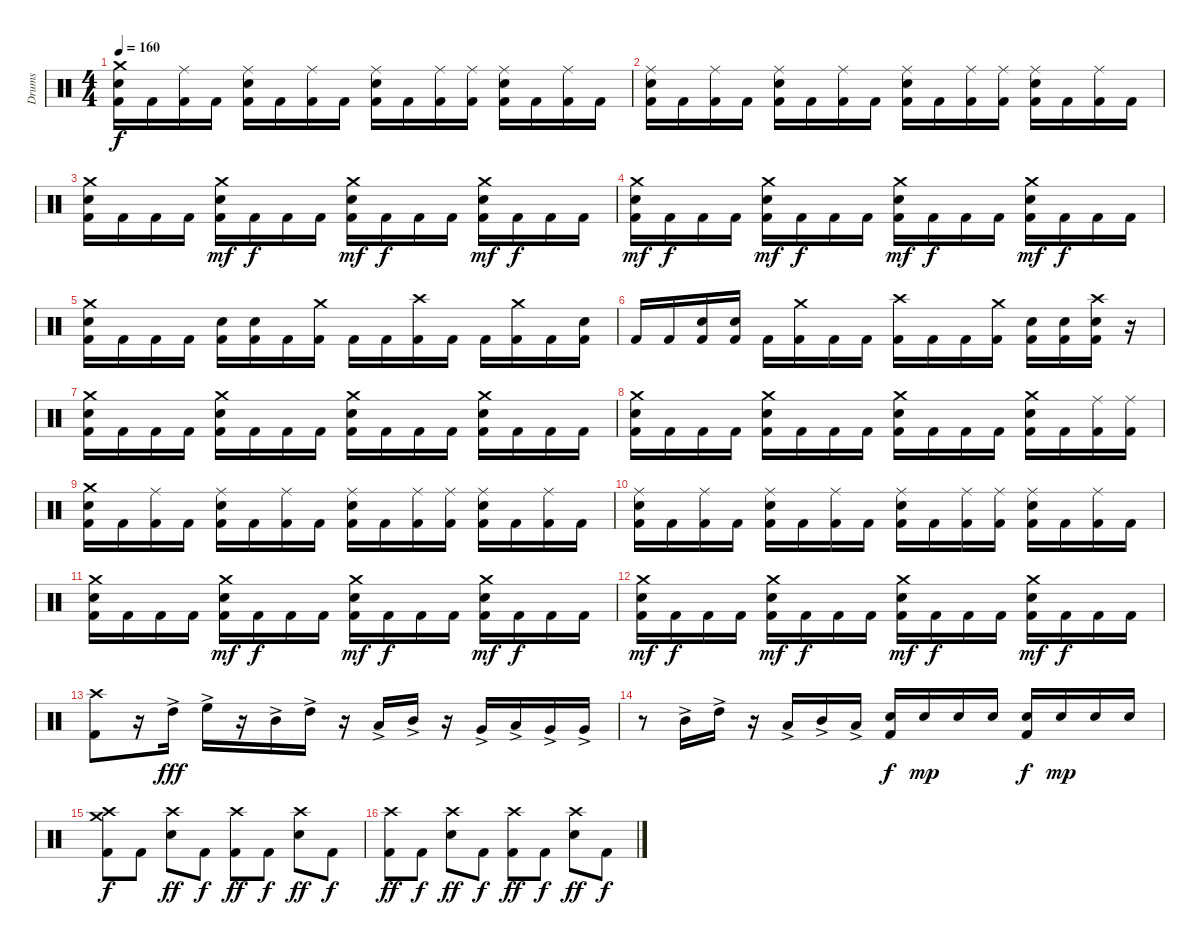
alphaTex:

\track ("Drums" "Drums") {instrument percussion}
\staff {score}
\articulation defaults
\ts (4 4)
\tempo 160
\clef neutral
\ks c
("Crash medium (hit)" "Snare (hit) 2" "Kick (hit) 2").16{dy f} "Kick (hit) 2".16 ("Ride (middle)" "Kick (hit) 2").16 "Kick (hit) 2".16 ("Ride (middle)" "Snare (hit) 2" "Kick (hit) 2").16 "Kick (hit) 2".16 ("Ride (middle)" "Kick (hit) 2").16 "Kick (hit) 2".16 ("Ride (middle)" "Snare (hit) 2" "Kick (hit) 2").16 "Kick (hit) 2".16 ("Ride (middle)" "Kick (hit) 2").16 ("Ride (middle)" "Kick (hit) 2").16 ("Ride (middle)" "Snare (hit) 2" "Kick (hit) 2").16 "Kick (hit) 2".16 ("Ride (middle)" "Kick (hit) 2").16 "Kick (hit) 2".16 |
("Ride (middle)" "Snare (hit) 2" "Kick (hit) 2").16 "Kick (hit) 2".16 ("Ride (middle)" "Kick (hit) 2").16 "Kick (hit) 2".16 ("Ride (middle)" "Snare (hit) 2" "Kick (hit) 2").16 "Kick (hit) 2".16 ("Ride (middle)" "Kick (hit) 2").16 "Kick (hit) 2".16 ("Ride (middle)" "Snare (hit) 2" "Kick (hit) 2").16 "Kick (hit) 2".16 ("Ride (middle)" "Kick (hit) 2").16 ("Ride (middle)" "Kick (hit) 2").16 ("Ride (middle)" "Snare (hit) 2" "Kick (hit) 2").16 "Kick (hit) 2".16 ("Ride (middle)" "Kick (hit) 2").16 "Kick (hit) 2".16 |
("Crash medium (hit)" "Snare (hit) 2" "Kick (hit) 2").16 "Kick (hit) 2".16 "Kick (hit) 2".16 "Kick (hit) 2".16 ("Crash medium (hit)" "Snare (hit) 2" "Kick (hit) 2").16{dy mf} "Kick (hit) 2".16{dy f} "Kick (hit) 2".16 "Kick (hit) 2".16 ("Crash medium (hit)" "Snare (hit) 2" "Kick (hit) 2").16{dy mf} "Kick (hit) 2".16{dy f} "Kick (hit) 2".16 "Kick (hit) 2".16 ("Crash medium (hit)" "Snare (hit) 2" "Kick (hit) 2").16{dy mf} "Kick (hit) 2".16{dy f} "Kick (hit) 2".16 "Kick (hit) 2".16 |
("Crash medium (hit)" "Snare (hit) 2" "Kick (hit) 2").16{dy mf} "Kick (hit) 2".16{dy f} "Kick (hit) 2".16 "Kick (hit) 2".16 ("Crash medium (hit)" "Snare (hit) 2" "Kick (hit) 2").16{dy mf} "Kick (hit) 2".16{dy f} "Kick (hit) 2".16 "Kick (hit) 2".16 ("Crash medium (hit)" "Snare (hit) 2" "Kick (hit) 2").16{dy mf} "Kick (hit) 2".16{dy f} "Kick (hit) 2".16 "Kick (hit) 2".16 ("Crash medium (hit)" "Snare (hit) 2" "Kick (hit) 2").16{dy mf} "Kick (hit) 2".16{dy f} "Kick (hit) 2".16 "Kick (hit) 2".16 |
("Crash medium (hit)" "Snare (hit) 2" "Kick (hit) 2").16 "Kick (hit) 2".16 "Kick (hit) 2".16 "Kick (hit) 2".16 ("Snare (hit) 2" "Kick (hit) 2").16 ("Snare (hit) 2" "Kick (hit) 2").16 "Kick (hit) 2".16 ("Crash medium (hit)" "Kick (hit) 2").16 "Kick (hit) 2".16 "Kick (hit) 2".16 ("Crash high (hit)" "Kick (hit) 2").16 "Kick (hit) 2".16 "Kick (hit) 2".16 ("Crash medium (hit)" "Kick (hit) 2").16 "Kick (hit) 2".16 ("Snare (hit) 2" "Kick (hit) 2").16 |
"Kick (hit) 2".16 "Kick (hit) 2".16 ("Snare (hit) 2" "Kick (hit) 2").16 ("Snare (hit) 2" "Kick (hit) 2").16 "Kick (hit) 2".16 ("Crash medium (hit)" "Kick (hit) 2").16 "Kick (hit) 2".16 "Kick (hit) 2".16 ("Crash high (hit)" "Kick (hit) 2").16 "Kick (hit) 2".16 "Kick (hit) 2".16 ("Crash medium (hit)" "Kick (hit) 2").16 ("Snare (hit) 2" "Kick (hit) 2").16 ("Snare (hit) 2" "Kick (hit) 2").16 ("Crash high (hit)" "Snare (hit) 2" "Kick (hit) 2").16 r.16 |
("Crash medium (hit)" "Snare (hit) 2" "Kick (hit) 2").16 "Kick (hit) 2".16 "Kick (hit) 2".16 "Kick (hit) 2".16 ("Crash medium (hit)" "Snare (hit) 2" "Kick (hit) 2").16 "Kick (hit) 2".16 "Kick (hit) 2".16 "Kick (hit) 2".16 ("Crash medium (hit)" "Snare (hit) 2" "Kick (hit) 2").16 "Kick (hit) 2".16 "Kick (hit) 2".16 "Kick (hit) 2".16 ("Crash medium (hit)" "Snare (hit) 2" "Kick (hit) 2").16 "Kick (hit) 2".16 "Kick (hit) 2".16 "Kick (hit) 2".16 |
("Crash medium (hit)" "Snare (hit) 2" "Kick (hit) 2").16 "Kick (hit) 2".16 "Kick (hit) 2".16 "Kick (hit) 2".16 ("Crash medium (hit)" "Snare (hit) 2" "Kick (hit) 2").16 "Kick (hit) 2".16 "Kick (hit) 2".16 "Kick (hit) 2".16 ("Crash medium (hit)" "Snare (hit) 2" "Kick (hit) 2").16 "Kick (hit) 2".16 "Kick (hit) 2".16 "Kick (hit) 2".16 ("Crash medium (hit)" "Snare (hit) 2" "Kick (hit) 2").16 "Kick (hit) 2".16 ("Ride (middle)" "Kick (hit) 2").16 ("Ride (middle)" "Kick (hit) 2").16 |
("Crash medium (hit)" "Snare (hit) 2" "Kick (hit) 2").16 "Kick (hit) 2".16 ("Ride (middle)" "Kick (hit) 2").16 "Kick (hit) 2".16 ("Ride (middle)" "Snare (hit) 2" "Kick (hit) 2").16 "Kick (hit) 2".16 ("Ride (middle)" "Kick (hit) 2").16 "Kick (hit) 2".16 ("Ride (middle)" "Snare (hit) 2" "Kick (hit) 2").16 "Kick (hit) 2".16 ("Ride (middle)" "Kick (hit) 2").16 ("Ride (middle)" "Kick (hit) 2").16 ("Ride (middle)" "Snare (hit) 2" "Kick (hit) 2").16 "Kick (hit) 2".16 ("Ride (middle)" "Kick (hit) 2").16 "Kick (hit) 2".16 |
("Ride (middle)" "Snare (hit) 2" "Kick (hit) 2").16 "Kick (hit) 2".16 ("Ride (middle)" "Kick (hit) 2").16 "Kick (hit) 2".16 ("Ride (middle)" "Snare (hit) 2" "Kick (hit) 2").16 "Kick (hit) 2".16 ("Ride (middle)" "Kick (hit) 2").16 "Kick (hit) 2".16 ("Ride (middle)" "Snare (hit) 2" "Kick (hit) 2").16 "Kick (hit) 2".16 ("Ride (middle)" "Kick (hit) 2").16 ("Ride (middle)" "Kick (hit) 2").16 ("Ride (middle)" "Snare (hit) 2" "Kick (hit) 2").16 "Kick (hit) 2".16 ("Ride (middle)" "Kick (hit) 2").16 "Kick (hit) 2".16 |
("Crash medium (hit)" "Snare (hit) 2" "Kick (hit) 2").16 "Kick (hit) 2".16 "Kick (hit) 2".16 "Kick (hit) 2".16 ("Crash medium (hit)" "Snare (hit) 2" "Kick (hit) 2").16{dy mf} "Kick (hit) 2".16{dy f} "Kick (hit) 2".16 "Kick (hit) 2".16 ("Crash medium (hit)" "Snare (hit) 2" "Kick (hit) 2").16{dy mf} "Kick (hit) 2".16{dy f} "Kick (hit) 2".16 "Kick (hit) 2".16 ("Crash medium (hit)" "Snare (hit) 2" "Kick (hit) 2").16{dy mf} "Kick (hit) 2".16{dy f} "Kick (hit) 2".16 "Kick (hit) 2".16 |
("Crash medium (hit)" "Snare (hit) 2" "Kick (hit) 2").16{dy mf} "Kick (hit) 2".16{dy f} "Kick (hit) 2".16 "Kick (hit) 2".16 ("Crash medium (hit)" "Snare (hit) 2" "Kick (hit) 2").16{dy mf} "Kick (hit) 2".16{dy f} "Kick (hit) 2".16 "Kick (hit) 2".16 ("Crash medium (hit)" "Snare (hit) 2" "Kick (hit) 2").16{dy mf} "Kick (hit) 2".16{dy f} "Kick (hit) 2".16 "Kick (hit) 2".16 ("Crash medium (hit)" "Snare (hit) 2" "Kick (hit) 2").16{dy mf} "Kick (hit) 2".16{dy f} "Kick (hit) 2".16 "Kick (hit) 2".16 |
("Crash high (hit)" "Kick (hit) 2").8 r.16 "High Tom (hit)"{ac}.16{dy fff} "High Floor Tom (hit)"{ac}.16 r.16 "Mid Tom (hit)"{ac}.16 "High Tom (hit)"{ac}.16 r.16 "Low Tom (hit)"{ac}.16 "Mid Tom (hit)"{ac}.16 r.16 "Very Low Tom (hit)"{ac}.16 "Low Tom (hit)"{ac}.16 "Very Low Tom (hit)"{ac}.16 "Very Low Tom (hit)"{ac}.16 |
r.8 "Mid Tom (hit)"{ac}.16 "High Tom (hit)"{ac}.16 r.16 "Low Tom (hit)"{ac}.16 "Mid Tom (hit)"{ac}.16 "Low Tom (hit)"{ac}.16 ("Snare (hit) 2" "Kick (hit) 2").16{dy f} "Snare (hit) 2".16{dy mp} "Snare (hit) 2".16 "Snare (hit) 2".16 ("Snare (hit) 2" "Kick (hit) 2").16{dy f} "Snare (hit) 2".16{dy mp} "Snare (hit) 2".16 "Snare (hit) 2".16 |
("Crash high (hit)" "Crash medium (hit)" "Kick (hit) 2").8{dy f} "Kick (hit) 2".8 ("Crash high (hit)" "Snare (hit) 2").8{dy ff} "Kick (hit) 2".8{dy f} ("Crash high (hit)" "Kick (hit) 2").8{dy ff} "Kick (hit) 2".8{dy f} ("Crash high (hit)" "Snare (hit) 2").8{dy ff} "Kick (hit) 2".8{dy f} |
("Crash high (hit)" "Kick (hit) 2").8{dy ff} "Kick (hit) 2".8{dy f} ("Crash high (hit)" "Snare (hit) 2").8{dy ff} "Kick (hit) 2".8{dy f} ("Crash high (hit)" "Kick (hit) 2").8{dy ff} "Kick (hit) 2".8{dy f} ("Crash high (hit)" "Snare (hit) 2").8{dy ff} "Kick (hit) 2".8{dy f}
